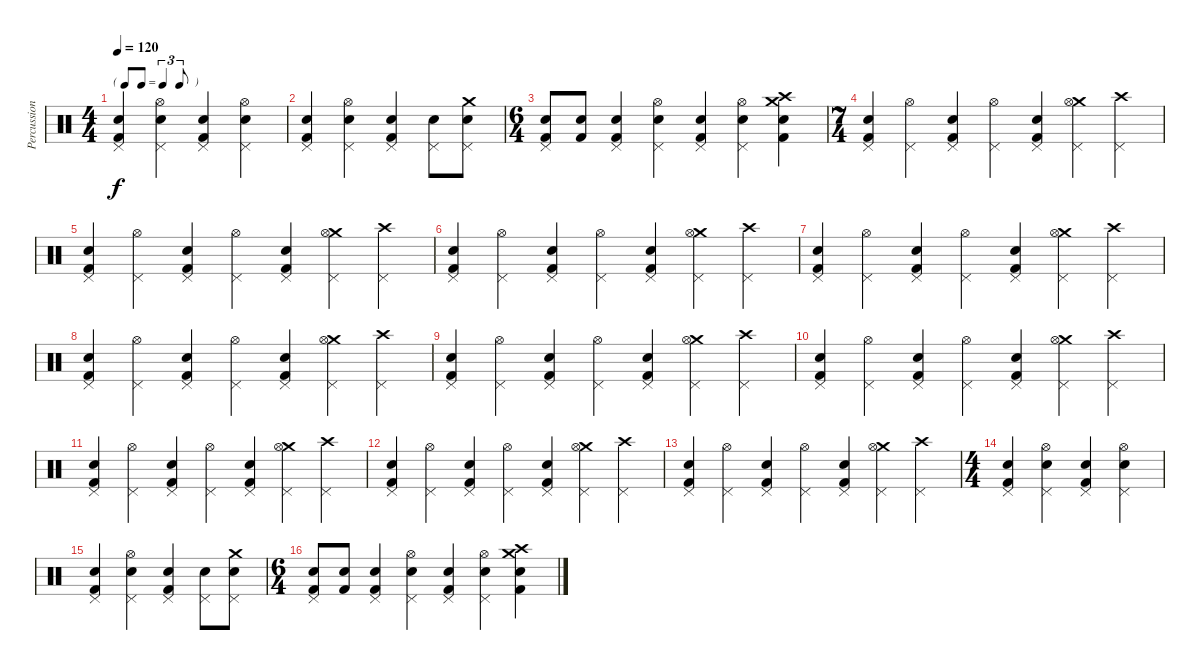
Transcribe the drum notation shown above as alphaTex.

\track ("Percussions" "Percussion") {instrument percussion}
\staff {score}
\articulation defaults
\ts (4 4)
\tf triplet8th
\tempo 120
\clef neutral
\ks c
("Kick (hit) 2" "Snare (hit) 2" "Pedal Hi-Hat (hit)").4{dy f} ("Hi-Hat (open)" "Snare (hit) 2" "Pedal Hi-Hat (hit)").4 ("Kick (hit) 2" "Snare (hit) 2" "Pedal Hi-Hat (hit)").4 ("Hi-Hat (open)" "Snare (hit) 2" "Pedal Hi-Hat (hit)").4 |
("Kick (hit) 2" "Snare (hit) 2" "Pedal Hi-Hat (hit)").4 ("Hi-Hat (open)" "Snare (hit) 2" "Pedal Hi-Hat (hit)").4 ("Kick (hit) 2" "Snare (hit) 2" "Pedal Hi-Hat (hit)").4 ("Snare (hit) 2" "Pedal Hi-Hat (hit)").8 ("Crash medium (hit)" "Snare (hit) 2" "Pedal Hi-Hat (hit)").8 |
\ts (6 4)
("Kick (hit) 2" "Snare (hit) 2" "Pedal Hi-Hat (hit)").8 ("Snare (hit) 2" "Kick (hit) 2").8 ("Kick (hit) 2" "Snare (hit) 2" "Pedal Hi-Hat (hit)").4 ("Hi-Hat (open)" "Snare (hit) 2" "Pedal Hi-Hat (hit)").4 ("Kick (hit) 2" "Snare (hit) 2" "Pedal Hi-Hat (hit)").4 ("Hi-Hat (open)" "Snare (hit) 2" "Pedal Hi-Hat (hit)").4 ("Kick (hit) 2" "Crash high (hit)" "Crash medium (hit)" "Snare (hit) 2").4 |
\ts (7 4)
("Kick (hit) 2" "Snare (hit) 2" "Pedal Hi-Hat (hit)").4 ("Hi-Hat (open)" "Pedal Hi-Hat (hit)").4 ("Kick (hit) 2" "Snare (hit) 2" "Pedal Hi-Hat (hit)").4 ("Hi-Hat (open)" "Pedal Hi-Hat (hit)").4 ("Kick (hit) 2" "Snare (hit) 2" "Pedal Hi-Hat (hit)").4 ("Crash medium (hit)" "Hi-Hat (open)" "Pedal Hi-Hat (hit)").4 ("Crash high (hit)" "Pedal Hi-Hat (hit)").4 |
("Kick (hit) 2" "Snare (hit) 2" "Pedal Hi-Hat (hit)").4 ("Hi-Hat (open)" "Pedal Hi-Hat (hit)").4 ("Kick (hit) 2" "Snare (hit) 2" "Pedal Hi-Hat (hit)").4 ("Hi-Hat (open)" "Pedal Hi-Hat (hit)").4 ("Kick (hit) 2" "Snare (hit) 2" "Pedal Hi-Hat (hit)").4 ("Crash medium (hit)" "Hi-Hat (open)" "Pedal Hi-Hat (hit)").4 ("Crash high (hit)" "Pedal Hi-Hat (hit)").4 |
("Kick (hit) 2" "Snare (hit) 2" "Pedal Hi-Hat (hit)").4 ("Hi-Hat (open)" "Pedal Hi-Hat (hit)").4 ("Kick (hit) 2" "Snare (hit) 2" "Pedal Hi-Hat (hit)").4 ("Hi-Hat (open)" "Pedal Hi-Hat (hit)").4 ("Kick (hit) 2" "Snare (hit) 2" "Pedal Hi-Hat (hit)").4 ("Crash medium (hit)" "Hi-Hat (open)" "Pedal Hi-Hat (hit)").4 ("Crash high (hit)" "Pedal Hi-Hat (hit)").4 |
("Kick (hit) 2" "Snare (hit) 2" "Pedal Hi-Hat (hit)").4 ("Hi-Hat (open)" "Pedal Hi-Hat (hit)").4 ("Kick (hit) 2" "Snare (hit) 2" "Pedal Hi-Hat (hit)").4 ("Hi-Hat (open)" "Pedal Hi-Hat (hit)").4 ("Kick (hit) 2" "Snare (hit) 2" "Pedal Hi-Hat (hit)").4 ("Crash medium (hit)" "Hi-Hat (open)" "Pedal Hi-Hat (hit)").4 ("Crash high (hit)" "Pedal Hi-Hat (hit)").4 |
("Kick (hit) 2" "Snare (hit) 2" "Pedal Hi-Hat (hit)").4 ("Hi-Hat (open)" "Pedal Hi-Hat (hit)").4 ("Kick (hit) 2" "Snare (hit) 2" "Pedal Hi-Hat (hit)").4 ("Hi-Hat (open)" "Pedal Hi-Hat (hit)").4 ("Kick (hit) 2" "Snare (hit) 2" "Pedal Hi-Hat (hit)").4 ("Crash medium (hit)" "Hi-Hat (open)" "Pedal Hi-Hat (hit)").4 ("Crash high (hit)" "Pedal Hi-Hat (hit)").4 |
("Kick (hit) 2" "Snare (hit) 2" "Pedal Hi-Hat (hit)").4 ("Hi-Hat (open)" "Pedal Hi-Hat (hit)").4 ("Kick (hit) 2" "Snare (hit) 2" "Pedal Hi-Hat (hit)").4 ("Hi-Hat (open)" "Pedal Hi-Hat (hit)").4 ("Kick (hit) 2" "Snare (hit) 2" "Pedal Hi-Hat (hit)").4 ("Crash medium (hit)" "Hi-Hat (open)" "Pedal Hi-Hat (hit)").4 ("Crash high (hit)" "Pedal Hi-Hat (hit)").4 |
("Kick (hit) 2" "Snare (hit) 2" "Pedal Hi-Hat (hit)").4 ("Hi-Hat (open)" "Pedal Hi-Hat (hit)").4 ("Kick (hit) 2" "Snare (hit) 2" "Pedal Hi-Hat (hit)").4 ("Hi-Hat (open)" "Pedal Hi-Hat (hit)").4 ("Kick (hit) 2" "Snare (hit) 2" "Pedal Hi-Hat (hit)").4 ("Crash medium (hit)" "Hi-Hat (open)" "Pedal Hi-Hat (hit)").4 ("Crash high (hit)" "Pedal Hi-Hat (hit)").4 |
("Kick (hit) 2" "Snare (hit) 2" "Pedal Hi-Hat (hit)").4 ("Hi-Hat (open)" "Pedal Hi-Hat (hit)").4 ("Kick (hit) 2" "Snare (hit) 2" "Pedal Hi-Hat (hit)").4 ("Hi-Hat (open)" "Pedal Hi-Hat (hit)").4 ("Kick (hit) 2" "Snare (hit) 2" "Pedal Hi-Hat (hit)").4 ("Crash medium (hit)" "Hi-Hat (open)" "Pedal Hi-Hat (hit)").4 ("Crash high (hit)" "Pedal Hi-Hat (hit)").4 |
("Kick (hit) 2" "Snare (hit) 2" "Pedal Hi-Hat (hit)").4 ("Hi-Hat (open)" "Pedal Hi-Hat (hit)").4 ("Kick (hit) 2" "Snare (hit) 2" "Pedal Hi-Hat (hit)").4 ("Hi-Hat (open)" "Pedal Hi-Hat (hit)").4 ("Kick (hit) 2" "Snare (hit) 2" "Pedal Hi-Hat (hit)").4 ("Crash medium (hit)" "Hi-Hat (open)" "Pedal Hi-Hat (hit)").4 ("Crash high (hit)" "Pedal Hi-Hat (hit)").4 |
("Kick (hit) 2" "Snare (hit) 2" "Pedal Hi-Hat (hit)").4 ("Hi-Hat (open)" "Pedal Hi-Hat (hit)").4 ("Kick (hit) 2" "Snare (hit) 2" "Pedal Hi-Hat (hit)").4 ("Hi-Hat (open)" "Pedal Hi-Hat (hit)").4 ("Kick (hit) 2" "Snare (hit) 2" "Pedal Hi-Hat (hit)").4 ("Crash medium (hit)" "Hi-Hat (open)" "Pedal Hi-Hat (hit)").4 ("Crash high (hit)" "Pedal Hi-Hat (hit)").4 |
\ts (4 4)
("Kick (hit) 2" "Snare (hit) 2" "Pedal Hi-Hat (hit)").4 ("Hi-Hat (open)" "Snare (hit) 2" "Pedal Hi-Hat (hit)").4 ("Kick (hit) 2" "Snare (hit) 2" "Pedal Hi-Hat (hit)").4 ("Hi-Hat (open)" "Snare (hit) 2" "Pedal Hi-Hat (hit)").4 |
("Kick (hit) 2" "Snare (hit) 2" "Pedal Hi-Hat (hit)").4 ("Hi-Hat (open)" "Snare (hit) 2" "Pedal Hi-Hat (hit)").4 ("Kick (hit) 2" "Snare (hit) 2" "Pedal Hi-Hat (hit)").4 ("Snare (hit) 2" "Pedal Hi-Hat (hit)").8 ("Crash medium (hit)" "Snare (hit) 2" "Pedal Hi-Hat (hit)").8 |
\ts (6 4)
("Kick (hit) 2" "Snare (hit) 2" "Pedal Hi-Hat (hit)").8 ("Snare (hit) 2" "Kick (hit) 2").8 ("Kick (hit) 2" "Snare (hit) 2" "Pedal Hi-Hat (hit)").4 ("Hi-Hat (open)" "Snare (hit) 2" "Pedal Hi-Hat (hit)").4 ("Kick (hit) 2" "Snare (hit) 2" "Pedal Hi-Hat (hit)").4 ("Hi-Hat (open)" "Snare (hit) 2" "Pedal Hi-Hat (hit)").4 ("Kick (hit) 2" "Crash high (hit)" "Crash medium (hit)" "Snare (hit) 2").4
